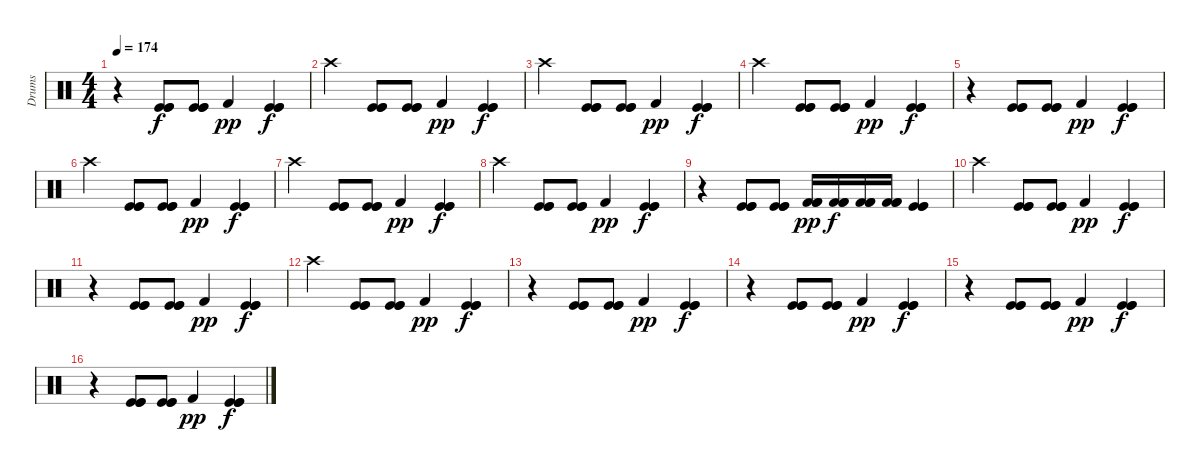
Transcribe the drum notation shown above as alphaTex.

\track ("Drums" "Drums") {instrument percussion}
\staff {score}
\articulation defaults
\ts (4 4)
\tempo 174
\clef neutral
\ks c
r.4{dy f} ("Kick (hit)" "Kick (hit)" "Kick (hit)").8 ("Kick (hit)" "Kick (hit)" "Kick (hit)").8 "Kick (hit) 2".4{dy pp} ("Kick (hit)" "Kick (hit)" "Kick (hit)").4{dy f} |
"Crash high (hit)".4 ("Kick (hit)" "Kick (hit)" "Kick (hit)").8 ("Kick (hit)" "Kick (hit)" "Kick (hit)").8 "Kick (hit) 2".4{dy pp} ("Kick (hit)" "Kick (hit)" "Kick (hit)").4{dy f} |
"Crash high (hit)".4 ("Kick (hit)" "Kick (hit)" "Kick (hit)").8 ("Kick (hit)" "Kick (hit)" "Kick (hit)").8 "Kick (hit) 2".4{dy pp} ("Kick (hit)" "Kick (hit)" "Kick (hit)").4{dy f} |
"Crash high (hit)".4 ("Kick (hit)" "Kick (hit)" "Kick (hit)").8 ("Kick (hit)" "Kick (hit)" "Kick (hit)").8 "Kick (hit) 2".4{dy pp} ("Kick (hit)" "Kick (hit)" "Kick (hit)").4{dy f} |
r.4 ("Kick (hit)" "Kick (hit)" "Kick (hit)").8 ("Kick (hit)" "Kick (hit)" "Kick (hit)").8 "Kick (hit) 2".4{dy pp} ("Kick (hit)" "Kick (hit)" "Kick (hit)").4{dy f} |
"Crash high (hit)".4 ("Kick (hit)" "Kick (hit)" "Kick (hit)").8 ("Kick (hit)" "Kick (hit)" "Kick (hit)").8 "Kick (hit) 2".4{dy pp} ("Kick (hit)" "Kick (hit)" "Kick (hit)").4{dy f} |
"Crash high (hit)".4 ("Kick (hit)" "Kick (hit)" "Kick (hit)").8 ("Kick (hit)" "Kick (hit)" "Kick (hit)").8 "Kick (hit) 2".4{dy pp} ("Kick (hit)" "Kick (hit)" "Kick (hit)").4{dy f} |
"Crash high (hit)".4 ("Kick (hit)" "Kick (hit)" "Kick (hit)").8 ("Kick (hit)" "Kick (hit)" "Kick (hit)").8 "Kick (hit) 2".4{dy pp} ("Kick (hit)" "Kick (hit)" "Kick (hit)").4{dy f} |
r.4 ("Kick (hit)" "Kick (hit)" "Kick (hit)").8 ("Kick (hit)" "Kick (hit)" "Kick (hit)").8 ("Kick (hit) 2" "Kick (hit) 2" "Kick (hit) 2").16{dy pp} ("Kick (hit) 2" "Kick (hit) 2" "Kick (hit) 2").16{dy f} ("Kick (hit) 2" "Kick (hit) 2" "Kick (hit) 2").16 ("Kick (hit) 2" "Kick (hit) 2" "Kick (hit) 2").16 ("Kick (hit)" "Kick (hit)" "Kick (hit)").4 |
"Crash high (hit)".4 ("Kick (hit)" "Kick (hit)" "Kick (hit)").8 ("Kick (hit)" "Kick (hit)" "Kick (hit)").8 "Kick (hit) 2".4{dy pp} ("Kick (hit)" "Kick (hit)" "Kick (hit)").4{dy f} |
r.4 ("Kick (hit)" "Kick (hit)" "Kick (hit)").8 ("Kick (hit)" "Kick (hit)" "Kick (hit)").8 "Kick (hit) 2".4{dy pp} ("Kick (hit)" "Kick (hit)" "Kick (hit)").4{dy f} |
"Crash high (hit)".4 ("Kick (hit)" "Kick (hit)" "Kick (hit)").8 ("Kick (hit)" "Kick (hit)" "Kick (hit)").8 "Kick (hit) 2".4{dy pp} ("Kick (hit)" "Kick (hit)" "Kick (hit)").4{dy f} |
r.4 ("Kick (hit)" "Kick (hit)" "Kick (hit)").8 ("Kick (hit)" "Kick (hit)" "Kick (hit)").8 "Kick (hit) 2".4{dy pp} ("Kick (hit)" "Kick (hit)" "Kick (hit)").4{dy f} |
r.4 ("Kick (hit)" "Kick (hit)" "Kick (hit)").8 ("Kick (hit)" "Kick (hit)" "Kick (hit)").8 "Kick (hit) 2".4{dy pp} ("Kick (hit)" "Kick (hit)" "Kick (hit)").4{dy f} |
r.4 ("Kick (hit)" "Kick (hit)" "Kick (hit)").8 ("Kick (hit)" "Kick (hit)" "Kick (hit)").8 "Kick (hit) 2".4{dy pp} ("Kick (hit)" "Kick (hit)" "Kick (hit)").4{dy f} |
r.4 ("Kick (hit)" "Kick (hit)" "Kick (hit)").8 ("Kick (hit)" "Kick (hit)" "Kick (hit)").8 "Kick (hit) 2".4{dy pp} ("Kick (hit)" "Kick (hit)" "Kick (hit)").4{dy f}
